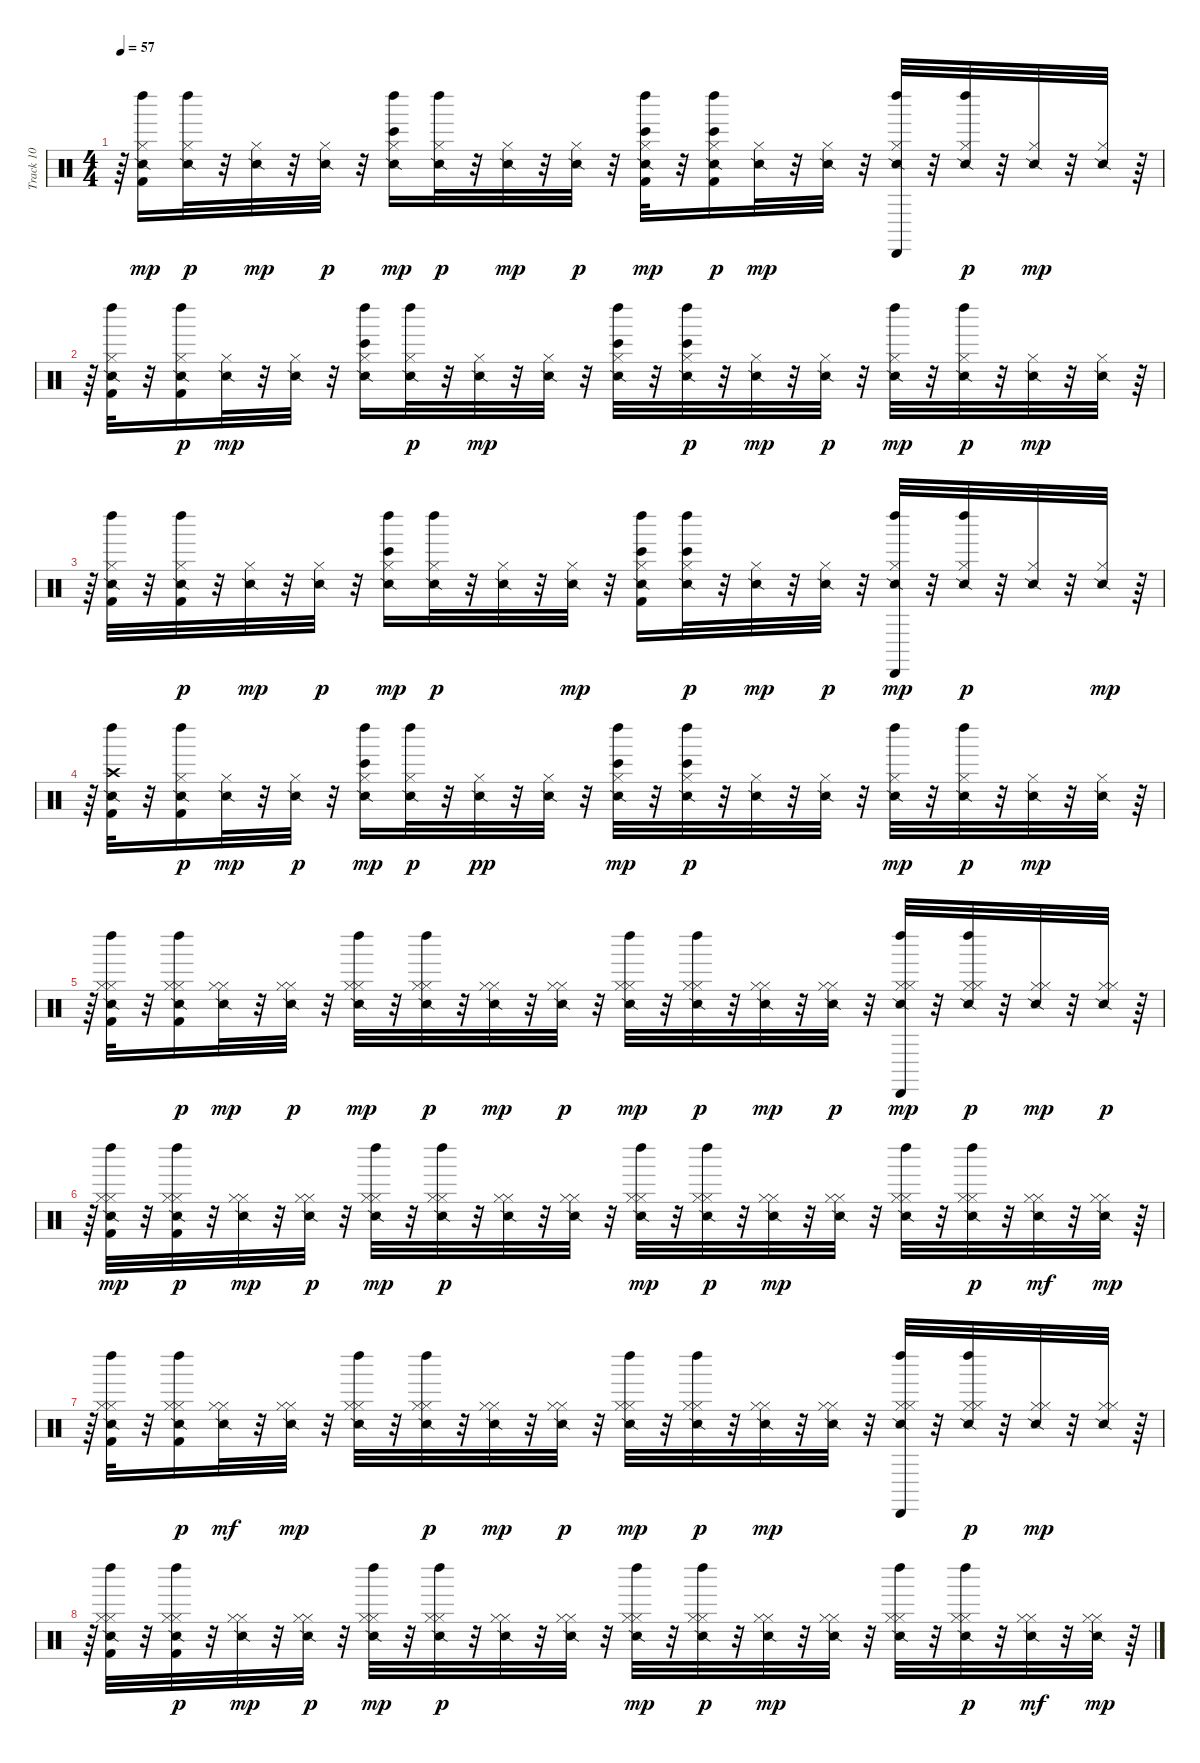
\track ("Track 10" "Track 10") {instrument percussion}
\staff {score}
\articulation defaults
\ts (4 4)
\tempo 57
\clef neutral
\ks c
r.64{dy p} ("Snare (side stick) 2" "Kick (hit) 2" "Hi-Hat (closed)" "Left Maraca (hit)").16{dy mp} ("Snare (side stick) 2" "Hi-Hat (closed)" "Left Maraca (hit)").32{dy p} r.32 ("Snare (side stick) 2" "Hi-Hat (closed)").32{dy mp} r.32 ("Snare (side stick) 2" "Hi-Hat (closed)").32{dy p} r.32 ("Bongo High (hit)" "Snare (side stick) 2" "Hi-Hat (closed)" "Left Maraca (hit)").16{dy mp} ("Snare (side stick) 2" "Hi-Hat (closed)" "Left Maraca (hit)").32{dy p} r.32 ("Snare (side stick) 2" "Hi-Hat (closed)").32{dy mp} r.32 ("Snare (side stick) 2" "Hi-Hat (closed)").32{dy p} r.32 ("Bongo High (hit)" "Snare (side stick) 2" "Kick (hit) 2" "Hi-Hat (closed)" "Left Maraca (hit)").32{dy mp} r.32 ("Bongo High (hit)" "Snare (side stick) 2" "Kick (hit) 2" "Hi-Hat (closed)" "Left Maraca (hit)").16{dy p} ("Snare (side stick) 2" "Hi-Hat (closed)").32{dy mp} r.32 ("Snare (side stick) 2" "Hi-Hat (closed)").32 r.32 ("Snare (side stick) 2" "Hi-Hat (closed)" "Left Maraca (hit)" "Cabasa (hit)").32 r.32 ("Snare (side stick) 2" "Hi-Hat (closed)" "Left Maraca (hit)").32{dy p} r.32 ("Snare (side stick) 2" "Hi-Hat (closed)").32{dy mp} r.32 ("Snare (side stick) 2" "Hi-Hat (closed)").32 r.64 |
r.64 ("Snare (side stick) 2" "Kick (hit) 2" "Hi-Hat (closed)" "Left Maraca (hit)").32 r.32 ("Snare (side stick) 2" "Kick (hit) 2" "Hi-Hat (closed)" "Left Maraca (hit)").16{dy p} ("Snare (side stick) 2" "Hi-Hat (closed)").32{dy mp} r.32 ("Snare (side stick) 2" "Hi-Hat (closed)").32 r.32 ("Bongo High (hit)" "Snare (side stick) 2" "Hi-Hat (closed)" "Left Maraca (hit)").16 ("Snare (side stick) 2" "Hi-Hat (closed)" "Left Maraca (hit)").32{dy p} r.32 ("Snare (side stick) 2" "Hi-Hat (closed)").32{dy mp} r.32 ("Snare (side stick) 2" "Hi-Hat (closed)").32 r.32 ("Bongo High (hit)" "Snare (side stick) 2" "Hi-Hat (closed)" "Left Maraca (hit)").32 r.32 ("Bongo High (hit)" "Snare (side stick) 2" "Hi-Hat (closed)" "Left Maraca (hit)").32{dy p} r.32 ("Snare (side stick) 2" "Hi-Hat (closed)").32{dy mp} r.32 ("Snare (side stick) 2" "Hi-Hat (closed)").32{dy p} r.32 ("Snare (side stick) 2" "Hi-Hat (closed)" "Left Maraca (hit)").32{dy mp} r.32 ("Snare (side stick) 2" "Hi-Hat (closed)" "Left Maraca (hit)").32{dy p} r.32 ("Snare (side stick) 2" "Hi-Hat (closed)").32{dy mp} r.32 ("Snare (side stick) 2" "Hi-Hat (closed)").32 r.64 |
r.64 ("Snare (side stick) 2" "Kick (hit) 2" "Hi-Hat (closed)" "Left Maraca (hit)").32 r.32 ("Snare (side stick) 2" "Kick (hit) 2" "Hi-Hat (closed)" "Left Maraca (hit)").32{dy p} r.32 ("Snare (side stick) 2" "Hi-Hat (closed)").32{dy mp} r.32 ("Snare (side stick) 2" "Hi-Hat (closed)").32{dy p} r.32 ("Bongo High (hit)" "Snare (side stick) 2" "Hi-Hat (closed)" "Left Maraca (hit)").16{dy mp} ("Snare (side stick) 2" "Hi-Hat (closed)" "Left Maraca (hit)").32{dy p} r.32 ("Snare (side stick) 2" "Hi-Hat (closed)").32 r.32 ("Snare (side stick) 2" "Hi-Hat (closed)").32{dy mp} r.32 ("Bongo High (hit)" "Snare (side stick) 2" "Kick (hit) 2" "Hi-Hat (closed)" "Left Maraca (hit)").16 ("Bongo High (hit)" "Snare (side stick) 2" "Hi-Hat (closed)" "Left Maraca (hit)").32{dy p} r.32 ("Snare (side stick) 2" "Hi-Hat (closed)").32{dy mp} r.32 ("Snare (side stick) 2" "Hi-Hat (closed)").32{dy p} r.32 ("Snare (side stick) 2" "Hi-Hat (closed)" "Left Maraca (hit)" "Cabasa (hit)").32{dy mp} r.32 ("Snare (side stick) 2" "Hi-Hat (closed)" "Left Maraca (hit)").32{dy p} r.32 ("Snare (side stick) 2" "Hi-Hat (closed)").32 r.32 ("Snare (side stick) 2" "Hi-Hat (closed)").32{dy mp} r.64 |
r.64 ("Snare (side stick) 2" "Kick (hit) 2" "Crash high (hit)" "Left Maraca (hit)").32 r.32 ("Snare (side stick) 2" "Kick (hit) 2" "Hi-Hat (closed)" "Left Maraca (hit)").16{dy p} ("Snare (side stick) 2" "Hi-Hat (closed)").32{dy mp} r.32 ("Snare (side stick) 2" "Hi-Hat (closed)").32{dy p} r.32 ("Bongo High (hit)" "Snare (side stick) 2" "Hi-Hat (closed)" "Left Maraca (hit)").16{dy mp} ("Snare (side stick) 2" "Hi-Hat (closed)" "Left Maraca (hit)").32{dy p} r.32 ("Snare (side stick) 2" "Hi-Hat (closed)").32{dy pp} r.32 ("Snare (side stick) 2" "Hi-Hat (closed)").32 r.32 ("Bongo High (hit)" "Snare (side stick) 2" "Hi-Hat (closed)" "Left Maraca (hit)").32{dy mp} r.32 ("Bongo High (hit)" "Snare (side stick) 2" "Hi-Hat (closed)" "Left Maraca (hit)").32{dy p} r.32 ("Snare (side stick) 2" "Hi-Hat (closed)").32 r.32 ("Snare (side stick) 2" "Hi-Hat (closed)").32 r.32 ("Snare (side stick) 2" "Hi-Hat (closed)" "Left Maraca (hit)").32{dy mp} r.32 ("Snare (side stick) 2" "Hi-Hat (closed)" "Left Maraca (hit)").32{dy p} r.32 ("Snare (side stick) 2" "Hi-Hat (closed)").32{dy mp} r.32 ("Snare (side stick) 2" "Hi-Hat (closed)").32 r.64 |
r.64 ("Snare (side stick) 2" "Kick (hit) 2" "Hi-Hat (closed)" "Hi-Hat (closed)" "Left Maraca (hit)").32 r.32 ("Snare (side stick) 2" "Kick (hit) 2" "Hi-Hat (closed)" "Hi-Hat (closed)" "Left Maraca (hit)").16{dy p} ("Snare (side stick) 2" "Hi-Hat (closed)" "Hi-Hat (closed)").32{dy mp} r.32 ("Snare (side stick) 2" "Hi-Hat (closed)" "Hi-Hat (closed)").32{dy p} r.32 ("Snare (side stick) 2" "Hi-Hat (closed)" "Hi-Hat (closed)" "Left Maraca (hit)").32{dy mp} r.32 ("Snare (side stick) 2" "Hi-Hat (closed)" "Hi-Hat (closed)" "Left Maraca (hit)").32{dy p} r.32 ("Snare (side stick) 2" "Hi-Hat (closed)" "Hi-Hat (closed)").32{dy mp} r.32 ("Snare (side stick) 2" "Hi-Hat (closed)" "Hi-Hat (closed)").32{dy p} r.32 ("Snare (side stick) 2" "Hi-Hat (closed)" "Hi-Hat (closed)" "Left Maraca (hit)").32{dy mp} r.32 ("Snare (side stick) 2" "Hi-Hat (closed)" "Hi-Hat (closed)" "Left Maraca (hit)").32{dy p} r.32 ("Snare (side stick) 2" "Hi-Hat (closed)" "Hi-Hat (closed)").32{dy mp} r.32 ("Snare (side stick) 2" "Hi-Hat (closed)" "Hi-Hat (closed)").32{dy p} r.32 ("Snare (side stick) 2" "Hi-Hat (closed)" "Hi-Hat (closed)" "Left Maraca (hit)" "Cabasa (hit)").32{dy mp} r.32 ("Snare (side stick) 2" "Hi-Hat (closed)" "Hi-Hat (closed)" "Left Maraca (hit)").32{dy p} r.32 ("Snare (side stick) 2" "Hi-Hat (closed)" "Hi-Hat (closed)").32{dy mp} r.32 ("Snare (side stick) 2" "Hi-Hat (closed)" "Hi-Hat (closed)").32{dy p} r.64 |
r.64 ("Snare (side stick) 2" "Kick (hit) 2" "Hi-Hat (closed)" "Hi-Hat (closed)" "Left Maraca (hit)").32{dy mp} r.32 ("Snare (side stick) 2" "Kick (hit) 2" "Hi-Hat (closed)" "Hi-Hat (closed)" "Left Maraca (hit)").32{dy p} r.32 ("Snare (side stick) 2" "Hi-Hat (closed)" "Hi-Hat (closed)").32{dy mp} r.32 ("Snare (side stick) 2" "Hi-Hat (closed)" "Hi-Hat (closed)").32{dy p} r.32 ("Snare (side stick) 2" "Hi-Hat (closed)" "Hi-Hat (closed)" "Left Maraca (hit)").32{dy mp} r.32 ("Snare (side stick) 2" "Hi-Hat (closed)" "Hi-Hat (closed)" "Left Maraca (hit)").32{dy p} r.32 ("Snare (side stick) 2" "Hi-Hat (closed)" "Hi-Hat (closed)").32 r.32 ("Snare (side stick) 2" "Hi-Hat (closed)" "Hi-Hat (closed)").32 r.32 ("Snare (side stick) 2" "Hi-Hat (closed)" "Hi-Hat (closed)" "Left Maraca (hit)").32{dy mp} r.32 ("Snare (side stick) 2" "Hi-Hat (closed)" "Hi-Hat (closed)" "Left Maraca (hit)").32{dy p} r.32 ("Snare (side stick) 2" "Hi-Hat (closed)" "Hi-Hat (closed)").32{dy mp} r.32 ("Snare (side stick) 2" "Hi-Hat (closed)" "Hi-Hat (closed)").32 r.32 ("Snare (side stick) 2" "Hi-Hat (closed)" "Hi-Hat (closed)" "Left Maraca (hit)").32 r.32 ("Snare (side stick) 2" "Hi-Hat (closed)" "Hi-Hat (closed)" "Left Maraca (hit)").32{dy p} r.32 ("Snare (side stick) 2" "Hi-Hat (closed)" "Hi-Hat (closed)").32{dy mf} r.32 ("Snare (side stick) 2" "Hi-Hat (closed)" "Hi-Hat (closed)").32{dy mp} r.64 |
r.64 ("Snare (side stick) 2" "Kick (hit) 2" "Hi-Hat (closed)" "Hi-Hat (closed)" "Left Maraca (hit)").32 r.32 ("Snare (side stick) 2" "Kick (hit) 2" "Hi-Hat (closed)" "Hi-Hat (closed)" "Left Maraca (hit)").16{dy p} ("Snare (side stick) 2" "Hi-Hat (closed)" "Hi-Hat (closed)").32{dy mf} r.32 ("Snare (side stick) 2" "Hi-Hat (closed)" "Hi-Hat (closed)").32{dy mp} r.32 ("Snare (side stick) 2" "Hi-Hat (closed)" "Hi-Hat (closed)" "Left Maraca (hit)").32 r.32 ("Snare (side stick) 2" "Hi-Hat (closed)" "Hi-Hat (closed)" "Left Maraca (hit)").32{dy p} r.32 ("Snare (side stick) 2" "Hi-Hat (closed)" "Hi-Hat (closed)").32{dy mp} r.32 ("Snare (side stick) 2" "Hi-Hat (closed)" "Hi-Hat (closed)").32{dy p} r.32 ("Snare (side stick) 2" "Hi-Hat (closed)" "Hi-Hat (closed)" "Left Maraca (hit)").32{dy mp} r.32 ("Snare (side stick) 2" "Hi-Hat (closed)" "Hi-Hat (closed)" "Left Maraca (hit)").32{dy p} r.32 ("Snare (side stick) 2" "Hi-Hat (closed)" "Hi-Hat (closed)").32{dy mp} r.32 ("Snare (side stick) 2" "Hi-Hat (closed)" "Hi-Hat (closed)").32 r.32 ("Snare (side stick) 2" "Hi-Hat (closed)" "Hi-Hat (closed)" "Left Maraca (hit)" "Cabasa (hit)").32 r.32 ("Snare (side stick) 2" "Hi-Hat (closed)" "Hi-Hat (closed)" "Left Maraca (hit)").32{dy p} r.32 ("Snare (side stick) 2" "Hi-Hat (closed)" "Hi-Hat (closed)").32{dy mp} r.32 ("Snare (side stick) 2" "Hi-Hat (closed)" "Hi-Hat (closed)").32 r.64 |
r.64 ("Snare (side stick) 2" "Kick (hit) 2" "Hi-Hat (closed)" "Hi-Hat (closed)" "Left Maraca (hit)").32 r.32 ("Snare (side stick) 2" "Kick (hit) 2" "Hi-Hat (closed)" "Hi-Hat (closed)" "Left Maraca (hit)").32{dy p} r.32 ("Snare (side stick) 2" "Hi-Hat (closed)" "Hi-Hat (closed)").32{dy mp} r.32 ("Snare (side stick) 2" "Hi-Hat (closed)" "Hi-Hat (closed)").32{dy p} r.32 ("Snare (side stick) 2" "Hi-Hat (closed)" "Hi-Hat (closed)" "Left Maraca (hit)").32{dy mp} r.32 ("Snare (side stick) 2" "Hi-Hat (closed)" "Hi-Hat (closed)" "Left Maraca (hit)").32{dy p} r.32 ("Snare (side stick) 2" "Hi-Hat (closed)" "Hi-Hat (closed)").32 r.32 ("Snare (side stick) 2" "Hi-Hat (closed)" "Hi-Hat (closed)").32 r.32 ("Snare (side stick) 2" "Hi-Hat (closed)" "Hi-Hat (closed)" "Left Maraca (hit)").32{dy mp} r.32 ("Snare (side stick) 2" "Hi-Hat (closed)" "Hi-Hat (closed)" "Left Maraca (hit)").32{dy p} r.32 ("Snare (side stick) 2" "Hi-Hat (closed)" "Hi-Hat (closed)").32{dy mp} r.32 ("Snare (side stick) 2" "Hi-Hat (closed)" "Hi-Hat (closed)").32 r.32 ("Snare (side stick) 2" "Hi-Hat (closed)" "Hi-Hat (closed)" "Left Maraca (hit)").32 r.32 ("Snare (side stick) 2" "Hi-Hat (closed)" "Hi-Hat (closed)" "Left Maraca (hit)").32{dy p} r.32 ("Snare (side stick) 2" "Hi-Hat (closed)" "Hi-Hat (closed)").32{dy mf} r.32 ("Snare (side stick) 2" "Hi-Hat (closed)" "Hi-Hat (closed)").32{dy mp} r.64
